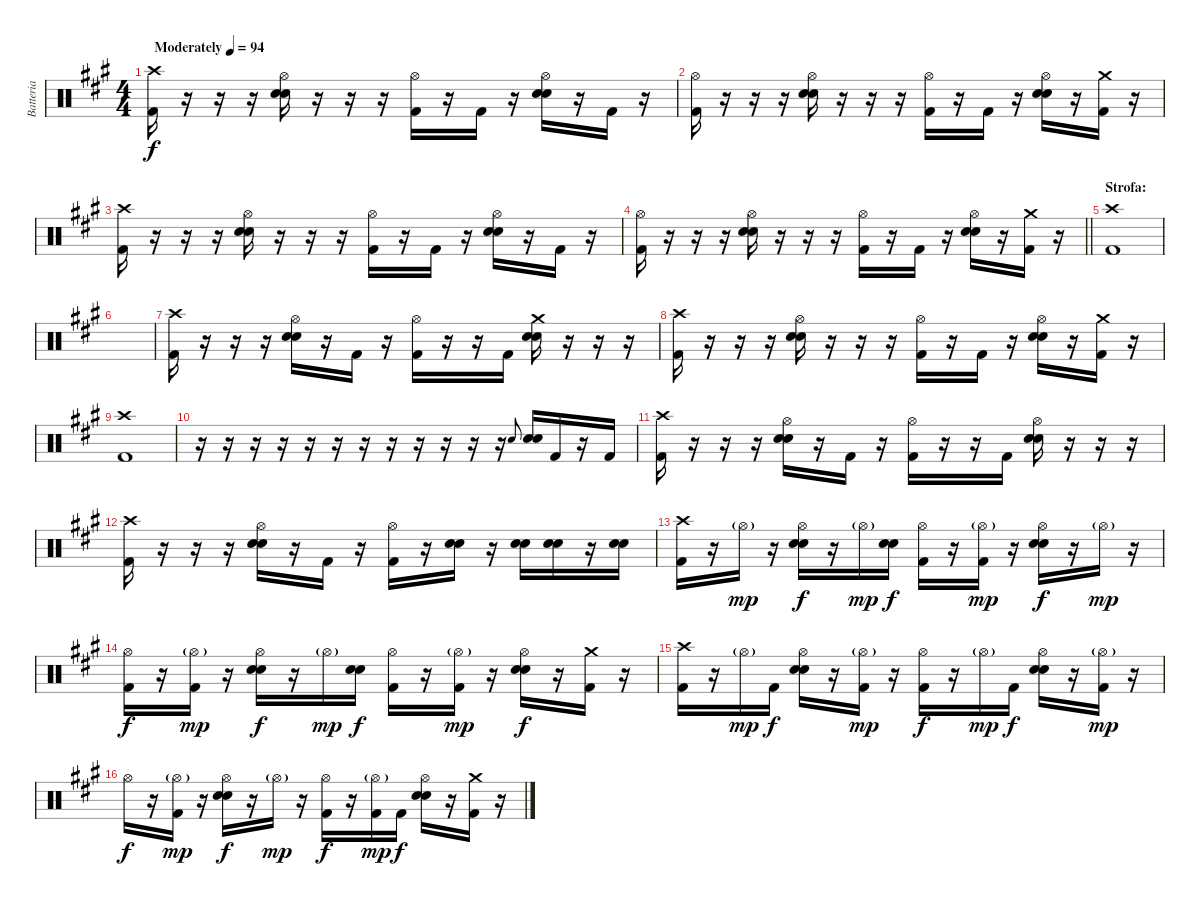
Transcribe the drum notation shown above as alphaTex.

\track ("Batteria" "Batteria") {instrument percussion}
\staff {score}
\articulation defaults
\ts (4 4)
\tempo (94 "Moderately")
\clef neutral
\ks a
("Kick (hit) 2" "Crash high (hit)").16{dy f} r.16 r.16 r.16 ("Snare (hit) 2" "Snare (hit) 2" "Hi-Hat (open)").16 r.16 r.16 r.16 ("Kick (hit) 2" "Hi-Hat (open)").16 r.16 "Kick (hit) 2".16 r.16 ("Snare (hit) 2" "Snare (hit) 2" "Hi-Hat (open)").16 r.16 "Kick (hit) 2".16 r.16 |
("Kick (hit) 2" "Hi-Hat (open)").16 r.16 r.16 r.16 ("Snare (hit) 2" "Snare (hit) 2" "Hi-Hat (open)").16 r.16 r.16 r.16 ("Kick (hit) 2" "Hi-Hat (open)").16 r.16 "Kick (hit) 2".16 r.16 ("Snare (hit) 2" "Snare (hit) 2" "Hi-Hat (open)").16 r.16 ("Kick (hit) 2" "Crash medium (hit)").16 r.16 |
("Kick (hit) 2" "Crash high (hit)").16 r.16 r.16 r.16 ("Snare (hit) 2" "Snare (hit) 2" "Hi-Hat (open)").16 r.16 r.16 r.16 ("Kick (hit) 2" "Hi-Hat (open)").16 r.16 "Kick (hit) 2".16 r.16 ("Snare (hit) 2" "Snare (hit) 2" "Hi-Hat (open)").16 r.16 "Kick (hit) 2".16 r.16 |
\barLineRight lightlight
("Kick (hit) 2" "Hi-Hat (open)").16 r.16 r.16 r.16 ("Snare (hit) 2" "Snare (hit) 2" "Hi-Hat (open)").16 r.16 r.16 r.16 ("Kick (hit) 2" "Hi-Hat (open)").16 r.16 "Kick (hit) 2".16 r.16 ("Snare (hit) 2" "Snare (hit) 2" "Hi-Hat (open)").16 r.16 ("Kick (hit) 2" "Crash medium (hit)").16 r.16 |
\section ("" "Strofa:")
("Kick (hit) 2" "Crash high (hit)").1 |
|
("Kick (hit) 2" "Crash high (hit)").16 r.16 r.16 r.16 ("Snare (hit) 2" "Snare (hit) 2" "Hi-Hat (open)").16 r.16 "Kick (hit) 2".16 r.16 ("Kick (hit) 2" "Hi-Hat (open)").16 r.16 r.16 "Kick (hit) 2".16 ("Snare (hit) 2" "Snare (hit) 2" "Crash medium (hit)").16 r.16 r.16 r.16 |
("Kick (hit) 2" "Crash high (hit)").16 r.16 r.16 r.16 ("Snare (hit) 2" "Snare (hit) 2" "Hi-Hat (open)").16 r.16 r.16 r.16 ("Kick (hit) 2" "Hi-Hat (open)").16 r.16 "Kick (hit) 2".16 r.16 ("Snare (hit) 2" "Snare (hit) 2" "Hi-Hat (open)").16 r.16 ("Kick (hit) 2" "Crash medium (hit)").16 r.16 |
("Kick (hit) 2" "Crash high (hit)").1 |
r.16 r.16 r.16 r.16 r.16 r.16 r.16 r.16 r.16 r.16 r.16 r.16 "Snare (hit) 2".8{gr onbeat} ("Snare (hit) 2" "Snare (hit) 2").16 "Kick (hit) 2".16 r.16 "Kick (hit) 2".16 |
("Kick (hit) 2" "Crash high (hit)").16 r.16 r.16 r.16 ("Snare (hit) 2" "Snare (hit) 2" "Hi-Hat (open)").16 r.16 "Kick (hit) 2".16 r.16 ("Kick (hit) 2" "Hi-Hat (open)").16 r.16 r.16 "Kick (hit) 2".16 ("Snare (hit) 2" "Snare (hit) 2" "Hi-Hat (open)").16 r.16 r.16 r.16 |
("Kick (hit) 2" "Crash high (hit)").16 r.16 r.16 r.16 ("Snare (hit) 2" "Snare (hit) 2" "Hi-Hat (open)").16 r.16 "Kick (hit) 2".16 r.16 ("Kick (hit) 2" "Hi-Hat (open)").16 r.16 ("Snare (hit) 2" "Snare (hit) 2").16 r.16 ("Snare (hit) 2" "Snare (hit) 2").16 ("Snare (hit) 2" "Snare (hit) 2").16 r.16 ("Snare (hit) 2" "Snare (hit) 2").16 |
("Kick (hit) 2" "Crash high (hit)").16 r.16 "Hi-Hat (open)"{g}.16{dy mp} r.16 ("Snare (hit) 2" "Snare (hit) 2" "Hi-Hat (open)").16{dy f} r.16 "Hi-Hat (open)"{g}.16{dy mp} ("Snare (hit) 2" "Snare (hit) 2").16{dy f} ("Kick (hit) 2" "Hi-Hat (open)").16 r.16 ("Kick (hit) 2" "Hi-Hat (open)"{g}).16{dy mp} r.16 ("Snare (hit) 2" "Snare (hit) 2" "Hi-Hat (open)").16{dy f} r.16 "Hi-Hat (open)"{g}.16{dy mp} r.16 |
("Kick (hit) 2" "Hi-Hat (open)").16{dy f} r.16 ("Kick (hit) 2" "Hi-Hat (open)"{g}).16{dy mp} r.16 ("Snare (hit) 2" "Snare (hit) 2" "Hi-Hat (open)").16{dy f} r.16 "Hi-Hat (open)"{g}.16{dy mp} ("Snare (hit) 2" "Snare (hit) 2").16{dy f} ("Kick (hit) 2" "Hi-Hat (open)").16 r.16 ("Kick (hit) 2" "Hi-Hat (open)"{g}).16{dy mp} r.16 ("Snare (hit) 2" "Snare (hit) 2" "Hi-Hat (open)").16{dy f} r.16 ("Kick (hit) 2" "Crash medium (hit)").16 r.16 |
("Kick (hit) 2" "Crash high (hit)").16 r.16 "Hi-Hat (open)"{g}.16{dy mp} "Kick (hit) 2".16{dy f} ("Snare (hit) 2" "Snare (hit) 2" "Hi-Hat (open)").16 r.16 ("Kick (hit) 2" "Hi-Hat (open)"{g}).16{dy mp} r.16 ("Kick (hit) 2" "Hi-Hat (open)").16{dy f} r.16 "Hi-Hat (open)"{g}.16{dy mp} "Kick (hit) 2".16{dy f} ("Snare (hit) 2" "Snare (hit) 2" "Hi-Hat (open)").16 r.16 ("Kick (hit) 2" "Hi-Hat (open)"{g}).16{dy mp} r.16 |
"Hi-Hat (open)".16{dy f} r.16 ("Kick (hit) 2" "Hi-Hat (open)"{g}).16{dy mp} r.16 ("Snare (hit) 2" "Snare (hit) 2" "Hi-Hat (open)").16{dy f} r.16 "Hi-Hat (open)"{g}.16{dy mp} r.16 ("Kick (hit) 2" "Hi-Hat (open)").16{dy f} r.16 ("Kick (hit) 2" "Hi-Hat (open)"{g}).16{dy mp} "Kick (hit) 2".16{dy f} ("Snare (hit) 2" "Snare (hit) 2" "Hi-Hat (open)").16 r.16 ("Kick (hit) 2" "Crash medium (hit)").16 r.16
